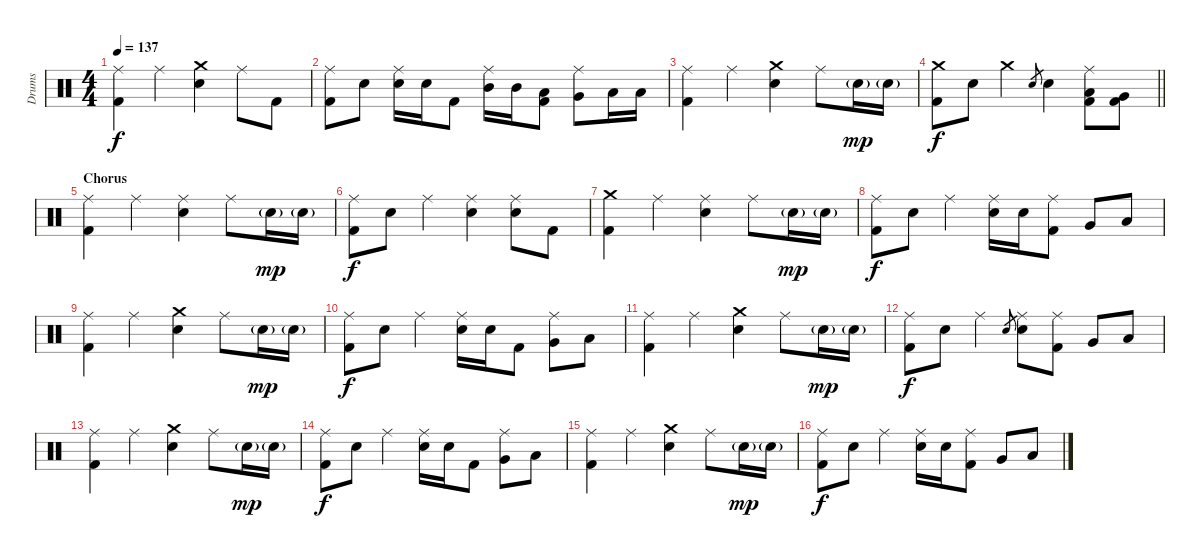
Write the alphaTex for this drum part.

\track ("Drums" "Drums") {instrument percussion}
\staff {score}
\articulation defaults
\ts (4 4)
\tempo 137
\clef neutral
\ks c
("Ride (middle)" "Kick (hit) 2").4{dy f} "Ride (middle)".4 ("Crash medium (hit)" "Electric Snare (hit)").4 "Ride (middle)".8 "Kick (hit) 2".8 |
("Ride (middle)" "Kick (hit) 2").8 "Electric Snare (hit)".8 ("Ride (middle)" "Electric Snare (hit)").16 "Electric Snare (hit)".16 "Kick (hit) 2".8 ("Ride (middle)" "Mid Tom (hit)").16 "Mid Tom (hit)".16 ("Low Tom (hit)" "Kick (hit) 2").8 ("Ride (middle)" "Very Low Tom (hit)").8 "Low Floor Tom (hit)".16 "Low Floor Tom (hit)".16 |
("Ride (middle)" "Kick (hit) 2").4 "Ride (middle)".4 ("Crash medium (hit)" "Electric Snare (hit)").4 "Ride (middle)".8 "Electric Snare (hit)"{g}.16{dy mp} "Electric Snare (hit)"{g}.16 |
\barLineRight lightlight
("Crash medium (hit)" "Kick (hit) 2").8{dy f} "Electric Snare (hit)".8 "Crash medium (hit)".4 "Electric Snare (hit)".8{gr} "Electric Snare (hit)".4 ("Ride (middle)" "Low Tom (hit)" "Kick (hit) 2").8 ("Very Low Tom (hit)" "Kick (hit) 2").8 |
\section ("" "Chorus")
("Ride (middle)" "Kick (hit) 2").4 "Ride (middle)".4 ("Ride (middle)" "Electric Snare (hit)").4 "Ride (middle)".8 "Electric Snare (hit)"{g}.16{dy mp} "Electric Snare (hit)"{g}.16 |
("Ride (middle)" "Kick (hit) 2").8{dy f} "Electric Snare (hit)".8 "Ride (middle)".4 ("Ride (middle)" "Electric Snare (hit)").4 ("Ride (middle)" "Electric Snare (hit)").8 "Kick (hit) 2".8 |
("Crash medium (hit)" "Kick (hit) 2").4 "Ride (middle)".4 ("Ride (middle)" "Electric Snare (hit)").4 "Ride (middle)".8 "Electric Snare (hit)"{g}.16{dy mp} "Electric Snare (hit)"{g}.16 |
("Ride (middle)" "Kick (hit) 2").8{dy f} "Electric Snare (hit)".8 "Ride (middle)".4 ("Ride (middle)" "Electric Snare (hit)").16 "Electric Snare (hit)".16 ("Ride (middle)" "Kick (hit) 2").8 "Very Low Tom (hit)".8 "Low Floor Tom (hit)".8 |
("Ride (middle)" "Kick (hit) 2").4 "Ride (middle)".4 ("Crash medium (hit)" "Electric Snare (hit)").4 "Ride (middle)".8 "Electric Snare (hit)"{g}.16{dy mp} "Electric Snare (hit)"{g}.16 |
("Ride (middle)" "Kick (hit) 2").8{dy f} "Electric Snare (hit)".8 "Ride (middle)".4 ("Ride (middle)" "Electric Snare (hit)").16 "Electric Snare (hit)".16 "Kick (hit) 2".8 ("Ride (middle)" "Very Low Tom (hit)").8 "Low Floor Tom (hit)".8 |
("Ride (middle)" "Kick (hit) 2").4 "Ride (middle)".4 ("Crash medium (hit)" "Electric Snare (hit)").4 "Ride (middle)".8 "Electric Snare (hit)"{g}.16{dy mp} "Electric Snare (hit)"{g}.16 |
("Ride (middle)" "Kick (hit) 2").8{dy f} "Electric Snare (hit)".8 "Ride (middle)".4 "Electric Snare (hit)".8{gr} ("Ride (middle)" "Electric Snare (hit)").8 ("Ride (middle)" "Kick (hit) 2").8 "Very Low Tom (hit)".8 "Low Floor Tom (hit)".8 |
("Ride (middle)" "Kick (hit) 2").4 "Ride (middle)".4 ("Crash medium (hit)" "Electric Snare (hit)").4 "Ride (middle)".8 "Electric Snare (hit)"{g}.16{dy mp} "Electric Snare (hit)"{g}.16 |
("Ride (middle)" "Kick (hit) 2").8{dy f} "Electric Snare (hit)".8 "Ride (middle)".4 ("Ride (middle)" "Electric Snare (hit)").16 "Electric Snare (hit)".16 "Kick (hit) 2".8 ("Ride (middle)" "Very Low Tom (hit)").8 "Low Floor Tom (hit)".8 |
("Ride (middle)" "Kick (hit) 2").4 "Ride (middle)".4 ("Crash medium (hit)" "Electric Snare (hit)").4 "Ride (middle)".8 "Electric Snare (hit)"{g}.16{dy mp} "Electric Snare (hit)"{g}.16 |
("Ride (middle)" "Kick (hit) 2").8{dy f} "Electric Snare (hit)".8 "Ride (middle)".4 ("Ride (middle)" "Electric Snare (hit)").16 "Electric Snare (hit)".16 ("Ride (middle)" "Kick (hit) 2").8 "Very Low Tom (hit)".8 "Low Floor Tom (hit)".8
